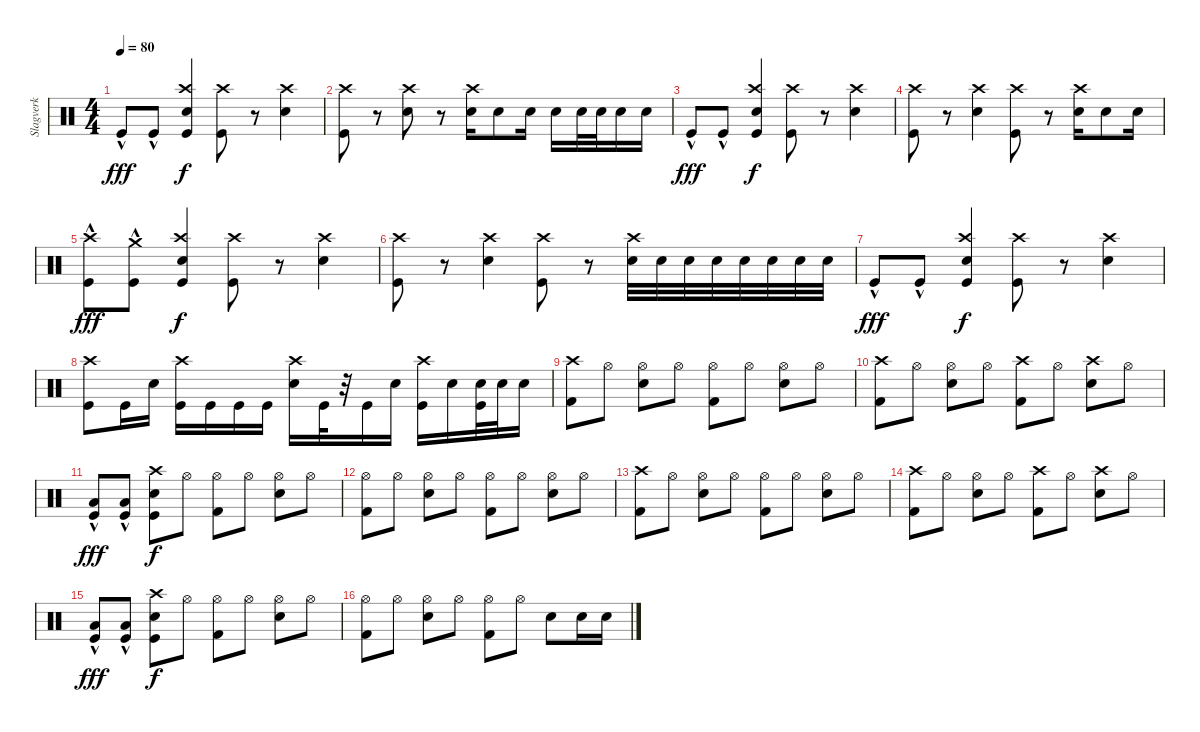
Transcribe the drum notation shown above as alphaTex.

\track ("Slagverk" "Slagverk") {instrument percussion}
\staff {score}
\articulation defaults
\ts (4 4)
\tempo 80
\clef neutral
\ks c "Kick (hit)"{hac}.8{dy fff} "Kick (hit)"{hac}.8
("Crash high (hit)" "Snare (hit) 2" "Kick (hit)").4{dy f} ("Crash high (hit)" "Kick (hit)").8 r.8 ("Crash high (hit)" "Snare (hit) 2").4 |
("Crash high (hit)" "Kick (hit)").8 r.8 ("Crash high (hit)" "Snare (hit) 2").8 r.8 ("Crash high (hit)" "Snare (hit) 2").16 "Snare (hit) 2".8 "Snare (hit) 2".16 "Snare (hit) 2".16 "Snare (hit) 2".32 "Snare (hit) 2".32 "Snare (hit) 2".16 "Snare (hit) 2".16 |
"Kick (hit)"{hac}.8{dy fff} "Kick (hit)"{hac}.8 ("Crash high (hit)" "Snare (hit) 2" "Kick (hit)").4{dy f} ("Crash high (hit)" "Kick (hit)").8 r.8 ("Crash high (hit)" "Snare (hit) 2").4 |
("Crash high (hit)" "Kick (hit)").8 r.8 ("Crash high (hit)" "Snare (hit) 2").4 ("Crash high (hit)" "Kick (hit)").8 r.8 ("Crash high (hit)" "Snare (hit) 2").16 "Snare (hit) 2".8 "Snare (hit) 2".16 |
("Crash high (hit)" "Kick (hit)"{hac}).8{dy fff} ("Crash medium (hit)" "Kick (hit)"{hac}).8 ("Crash high (hit)" "Snare (hit) 2" "Kick (hit)").4{dy f} ("Crash high (hit)" "Kick (hit)").8 r.8 ("Crash high (hit)" "Snare (hit) 2").4 |
("Crash high (hit)" "Kick (hit)").8 r.8 ("Crash high (hit)" "Snare (hit) 2").4 ("Crash high (hit)" "Kick (hit)").8 r.8 ("Crash high (hit)" "Snare (hit) 2").32 "Snare (hit) 2".32 "Snare (hit) 2".32 "Snare (hit) 2".32 "Snare (hit) 2".32 "Snare (hit) 2".32 "Snare (hit) 2".32 "Snare (hit) 2".32 |
"Kick (hit)"{hac}.8{dy fff} "Kick (hit)"{hac}.8 ("Crash high (hit)" "Snare (hit) 2" "Kick (hit)").4{dy f} ("Crash high (hit)" "Kick (hit)").8 r.8 ("Crash high (hit)" "Snare (hit) 2").4 |
("Crash high (hit)" "Kick (hit)").8 "Kick (hit)".16 "Snare (hit) 2".16 ("Crash high (hit)" "Kick (hit)").16 "Kick (hit)".16 "Kick (hit)".16 "Kick (hit)".16 ("Crash high (hit)" "Snare (hit) 2").16 "Kick (hit)".32 r.32 "Kick (hit)".16 "Snare (hit) 2".16 ("Crash high (hit)" "Kick (hit)").16 "Snare (hit) 2".16 ("Snare (hit) 2" "Kick (hit)").32 "Snare (hit) 2".32 "Snare (hit) 2".16 |
("Crash high (hit)" "Kick (hit) 2").8 "Hi-Hat (open)".8 ("Hi-Hat (open)" "Snare (hit) 2").8 "Hi-Hat (open)".8 ("Hi-Hat (open)" "Kick (hit) 2").8 "Hi-Hat (open)".8 ("Hi-Hat (open)" "Snare (hit) 2").8 "Hi-Hat (open)".8 |
("Crash high (hit)" "Kick (hit) 2").8 "Hi-Hat (open)".8 ("Hi-Hat (open)" "Snare (hit) 2").8 "Hi-Hat (open)".8 ("Crash high (hit)" "Kick (hit) 2").8 "Hi-Hat (open)".8 ("Crash high (hit)" "Snare (hit) 2").8 "Hi-Hat (open)".8 |
("Low Floor Tom (hit)" "Kick (hit)"{hac}).8{dy fff} ("Low Floor Tom (hit)" "Kick (hit)"{hac}).8 ("Crash high (hit)" "Snare (hit) 2" "Kick (hit)").8{dy f} "Hi-Hat (open)".8 ("Hi-Hat (open)" "Kick (hit) 2").8 "Hi-Hat (open)".8 ("Hi-Hat (open)" "Snare (hit) 2").8 "Hi-Hat (open)".8 |
("Hi-Hat (open)" "Kick (hit) 2").8 "Hi-Hat (open)".8 ("Hi-Hat (open)" "Snare (hit) 2").8 "Hi-Hat (open)".8 ("Hi-Hat (open)" "Kick (hit) 2").8 "Hi-Hat (open)".8 ("Hi-Hat (open)" "Snare (hit) 2").8 "Hi-Hat (open)".8 |
("Crash high (hit)" "Kick (hit) 2").8 "Hi-Hat (open)".8 ("Hi-Hat (open)" "Snare (hit) 2").8 "Hi-Hat (open)".8 ("Hi-Hat (open)" "Kick (hit) 2").8 "Hi-Hat (open)".8 ("Hi-Hat (open)" "Snare (hit) 2").8 "Hi-Hat (open)".8 |
("Crash high (hit)" "Kick (hit) 2").8 "Hi-Hat (open)".8 ("Hi-Hat (open)" "Snare (hit) 2").8 "Hi-Hat (open)".8 ("Crash high (hit)" "Kick (hit) 2").8 "Hi-Hat (open)".8 ("Crash high (hit)" "Snare (hit) 2").8 "Hi-Hat (open)".8 |
("Low Floor Tom (hit)" "Kick (hit)"{hac}).8{dy fff} ("Low Floor Tom (hit)" "Kick (hit)"{hac}).8 ("Crash high (hit)" "Snare (hit) 2" "Kick (hit)").8{dy f} "Hi-Hat (open)".8 ("Hi-Hat (open)" "Kick (hit) 2").8 "Hi-Hat (open)".8 ("Hi-Hat (open)" "Snare (hit) 2").8 "Hi-Hat (open)".8 |
("Hi-Hat (open)" "Kick (hit) 2").8 "Hi-Hat (open)".8 ("Hi-Hat (open)" "Snare (hit) 2").8 "Hi-Hat (open)".8 ("Hi-Hat (open)" "Kick (hit) 2").8 "Hi-Hat (open)".8 "Snare (hit) 2".8 "Snare (hit) 2".16 "Snare (hit) 2".16
